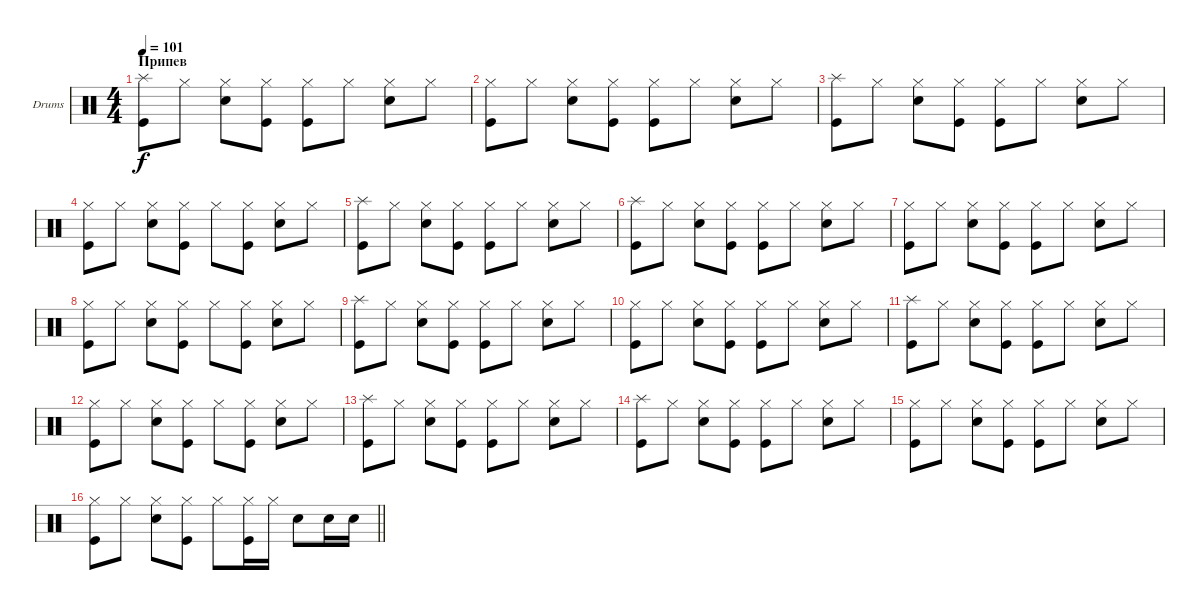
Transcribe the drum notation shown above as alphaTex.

\bracketExtendMode groupsimilarinstruments
\firstSystemTrackNameOrientation horizontal
\otherSystemsTrackNameOrientation horizontal
\track ("Drumkit" "Drums") {instrument percussion}
\staff {score}
\articulation defaults
\ts (4 4)
\section ("" "Припев")
\tempo 101
\clef neutral
\ks c
("Splash (hit)" "Kick (hit)").8{dy f} "Hi-Hat (closed)".8 ("Hi-Hat (closed)" "Snare (hit) 2").8 ("Hi-Hat (closed)" "Kick (hit)").8 ("Hi-Hat (closed)" "Kick (hit)").8 "Hi-Hat (closed)".8 ("Hi-Hat (closed)" "Snare (hit) 2").8 "Hi-Hat (closed)".8 |
("Hi-Hat (closed)" "Kick (hit)").8 "Hi-Hat (closed)".8 ("Hi-Hat (closed)" "Snare (hit) 2").8 ("Hi-Hat (closed)" "Kick (hit)").8 ("Hi-Hat (closed)" "Kick (hit)").8 "Hi-Hat (closed)".8 ("Hi-Hat (closed)" "Snare (hit) 2").8 "Hi-Hat (closed)".8 |
("Splash (hit)" "Kick (hit)").8 "Hi-Hat (closed)".8 ("Hi-Hat (closed)" "Snare (hit) 2").8 ("Hi-Hat (closed)" "Kick (hit)").8 ("Hi-Hat (closed)" "Kick (hit)").8 "Hi-Hat (closed)".8 ("Hi-Hat (closed)" "Snare (hit) 2").8 "Hi-Hat (closed)".8 |
("Hi-Hat (closed)" "Kick (hit)").8 "Hi-Hat (closed)".8 ("Hi-Hat (closed)" "Snare (hit) 2").8 ("Hi-Hat (closed)" "Kick (hit)").8 "Hi-Hat (closed)".8 ("Hi-Hat (closed)" "Kick (hit)").8 ("Hi-Hat (closed)" "Snare (hit) 2").8 "Hi-Hat (closed)".8 |
("Splash (hit)" "Kick (hit)").8 "Hi-Hat (closed)".8 ("Hi-Hat (closed)" "Snare (hit) 2").8 ("Hi-Hat (closed)" "Kick (hit)").8 ("Hi-Hat (closed)" "Kick (hit)").8 "Hi-Hat (closed)".8 ("Hi-Hat (closed)" "Snare (hit) 2").8 "Hi-Hat (closed)".8 |
("Splash (hit)" "Kick (hit)").8 "Hi-Hat (closed)".8 ("Hi-Hat (closed)" "Snare (hit) 2").8 ("Hi-Hat (closed)" "Kick (hit)").8 ("Hi-Hat (closed)" "Kick (hit)").8 "Hi-Hat (closed)".8 ("Hi-Hat (closed)" "Snare (hit) 2").8 "Hi-Hat (closed)".8 |
("Hi-Hat (closed)" "Kick (hit)").8 "Hi-Hat (closed)".8 ("Hi-Hat (closed)" "Snare (hit) 2").8 ("Hi-Hat (closed)" "Kick (hit)").8 ("Hi-Hat (closed)" "Kick (hit)").8 "Hi-Hat (closed)".8 ("Hi-Hat (closed)" "Snare (hit) 2").8 "Hi-Hat (closed)".8 |
("Hi-Hat (closed)" "Kick (hit)").8 "Hi-Hat (closed)".8 ("Hi-Hat (closed)" "Snare (hit) 2").8 ("Hi-Hat (closed)" "Kick (hit)").8 "Hi-Hat (closed)".8 ("Hi-Hat (closed)" "Kick (hit)").8 ("Hi-Hat (closed)" "Snare (hit) 2").8 "Hi-Hat (closed)".8 |
("Splash (hit)" "Kick (hit)").8 "Hi-Hat (closed)".8 ("Hi-Hat (closed)" "Snare (hit) 2").8 ("Hi-Hat (closed)" "Kick (hit)").8 ("Hi-Hat (closed)" "Kick (hit)").8 "Hi-Hat (closed)".8 ("Hi-Hat (closed)" "Snare (hit) 2").8 "Hi-Hat (closed)".8 |
("Hi-Hat (closed)" "Kick (hit)").8 "Hi-Hat (closed)".8 ("Hi-Hat (closed)" "Snare (hit) 2").8 ("Hi-Hat (closed)" "Kick (hit)").8 ("Hi-Hat (closed)" "Kick (hit)").8 "Hi-Hat (closed)".8 ("Hi-Hat (closed)" "Snare (hit) 2").8 "Hi-Hat (closed)".8 |
("Splash (hit)" "Kick (hit)").8 "Hi-Hat (closed)".8 ("Hi-Hat (closed)" "Snare (hit) 2").8 ("Hi-Hat (closed)" "Kick (hit)").8 ("Hi-Hat (closed)" "Kick (hit)").8 "Hi-Hat (closed)".8 ("Hi-Hat (closed)" "Snare (hit) 2").8 "Hi-Hat (closed)".8 |
("Hi-Hat (closed)" "Kick (hit)").8 "Hi-Hat (closed)".8 ("Hi-Hat (closed)" "Snare (hit) 2").8 ("Hi-Hat (closed)" "Kick (hit)").8 "Hi-Hat (closed)".8 ("Hi-Hat (closed)" "Kick (hit)").8 ("Hi-Hat (closed)" "Snare (hit) 2").8 "Hi-Hat (closed)".8 |
("Splash (hit)" "Kick (hit)").8 "Hi-Hat (closed)".8 ("Hi-Hat (closed)" "Snare (hit) 2").8 ("Hi-Hat (closed)" "Kick (hit)").8 ("Hi-Hat (closed)" "Kick (hit)").8 "Hi-Hat (closed)".8 ("Hi-Hat (closed)" "Snare (hit) 2").8 "Hi-Hat (closed)".8 |
("Splash (hit)" "Kick (hit)").8 "Hi-Hat (closed)".8 ("Hi-Hat (closed)" "Snare (hit) 2").8 ("Hi-Hat (closed)" "Kick (hit)").8 ("Hi-Hat (closed)" "Kick (hit)").8 "Hi-Hat (closed)".8 ("Hi-Hat (closed)" "Snare (hit) 2").8 "Hi-Hat (closed)".8 |
("Hi-Hat (closed)" "Kick (hit)").8 "Hi-Hat (closed)".8 ("Hi-Hat (closed)" "Snare (hit) 2").8 ("Hi-Hat (closed)" "Kick (hit)").8 ("Hi-Hat (closed)" "Kick (hit)").8 "Hi-Hat (closed)".8 ("Hi-Hat (closed)" "Snare (hit) 2").8 "Hi-Hat (closed)".8 |
\barLineRight lightlight
("Hi-Hat (closed)" "Kick (hit)").8 "Hi-Hat (closed)".8 ("Hi-Hat (closed)" "Snare (hit) 2").8 ("Hi-Hat (closed)" "Kick (hit)").8 "Hi-Hat (closed)".8 ("Hi-Hat (closed)" "Kick (hit)").16 "Hi-Hat (closed)".16 "Snare (hit) 2".8 "Snare (hit) 2".16 "Snare (hit) 2".16
